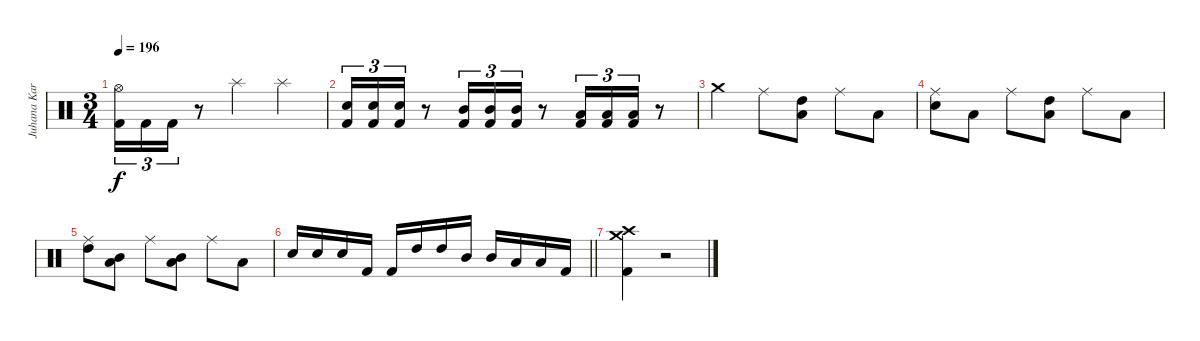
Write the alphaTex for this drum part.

\track ("Juhana Karlsson " "Juhana Kar") {instrument percussion}
\staff {score}
\articulation defaults
\ts (3 4)
\tempo 196
\clef neutral
\ks c
("Hi-Hat (open)" "Kick (hit) 2").16{tu (3 2) dy f} "Kick (hit) 2".16{tu (3 2)} "Kick (hit) 2".16{tu (3 2)} r.8 "Splash (hit)".4 "Splash (hit)".4 |
("Electric Snare (hit)" "Kick (hit) 2").16{tu (3 2)} ("Electric Snare (hit)" "Kick (hit) 2").16{tu (3 2)} ("Electric Snare (hit)" "Kick (hit) 2").16{tu (3 2)} r.8 ("Mid Tom (hit)" "Kick (hit) 2").16{tu (3 2)} ("Mid Tom (hit)" "Kick (hit) 2").16{tu (3 2)} ("Mid Tom (hit)" "Kick (hit) 2").16{tu (3 2)} r.8 ("Low Tom (hit)" "Kick (hit) 2").16{tu (3 2)} ("Low Tom (hit)" "Kick (hit) 2").16{tu (3 2)} ("Low Tom (hit)" "Kick (hit) 2").16{tu (3 2)} r.8 |
"Crash medium (hit)".4 "Ride (middle)".8 ("High Tom (hit)" "Low Tom (hit)").8 "Ride (middle)".8 "Low Tom (hit)".8 |
("Ride (middle)" "Electric Snare (hit)").8 "Low Tom (hit)".8 "Ride (middle)".8 ("High Tom (hit)" "Low Tom (hit)").8 "Ride (middle)".8 "Low Tom (hit)".8 |
("Ride (middle)" "High Tom (hit)").8 ("Mid Tom (hit)" "Low Tom (hit)").8 "Ride (middle)".8 ("Mid Tom (hit)" "Low Tom (hit)").8 "Ride (middle)".8 "Low Tom (hit)".8 |
\barLineRight lightlight "Electric Snare (hit)".16 "Electric Snare (hit)".16 "Electric Snare (hit)".16 "Kick (hit) 2".16 "Kick (hit) 2".16 "High Tom (hit)".16 "High Tom (hit)".16 "Mid Tom (hit)".16 "Mid Tom (hit)".16 "Low Tom (hit)".16 "Low Tom (hit)".16 "Kick (hit) 2".16
|
("Crash medium (hit)" "Crash high (hit)" "Kick (hit) 2").4{volume 0} r.2
